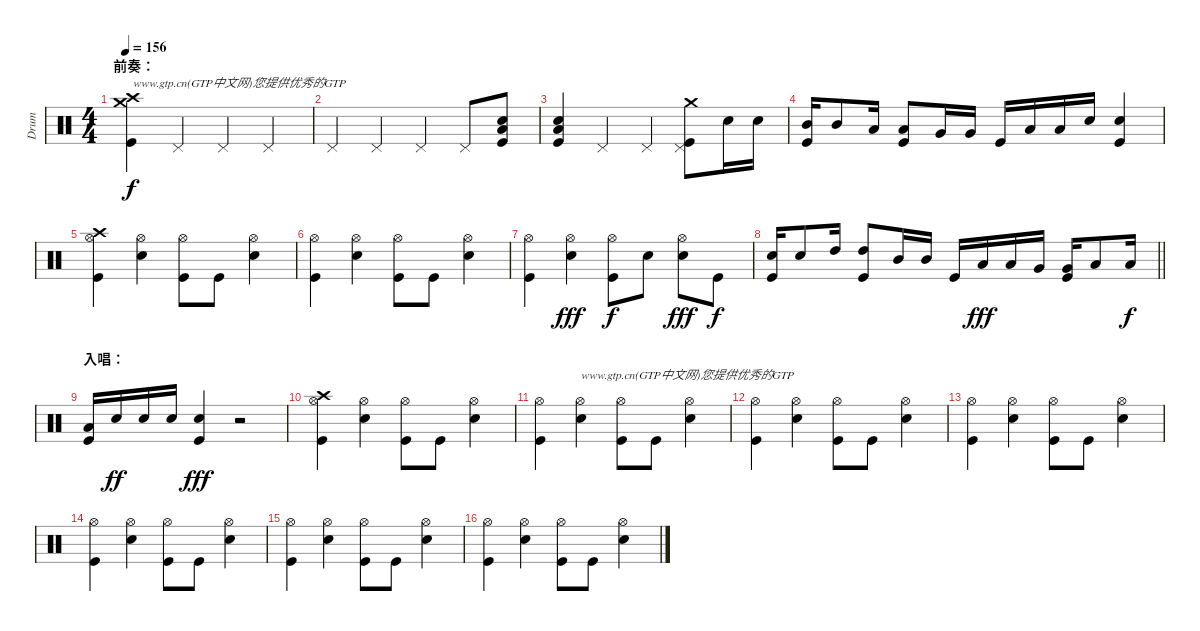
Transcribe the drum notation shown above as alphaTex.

\track ("Drum" "Drum") {instrument percussion}
\staff {score}
\articulation defaults
\ts (4 4)
\section ("" "前奏：")
\tempo 156
\clef neutral
\ks c
("Crash high (hit)" "Crash medium (hit)" "Kick (hit)").4{txt "www.gtp.cn(GTP中文网)您提供优秀的GTP" dy f} "Pedal Hi-Hat (hit)".4 "Pedal Hi-Hat (hit)".4 "Pedal Hi-Hat (hit)".4 |
"Pedal Hi-Hat (hit)".4 "Pedal Hi-Hat (hit)".4 "Pedal Hi-Hat (hit)".4 "Pedal Hi-Hat (hit)".8 ("Metronome (bell)" "Low Floor Tom (hit)" "Kick (hit)").8 |
("Metronome (bell)" "Low Floor Tom (hit)" "Kick (hit)").4 "Pedal Hi-Hat (hit)".4 "Pedal Hi-Hat (hit)".4 ("Crash medium (hit)" "Pedal Hi-Hat (hit)" "Kick (hit)").8 "Metronome (bell)".16 "Metronome (bell)".16 |
("Mid Tom (hit)" "Kick (hit)").16 "Mid Tom (hit)".8 "Low Tom (hit)".16 ("Low Tom (hit)" "Kick (hit)").8 "Very Low Tom (hit)".16 "Very Low Tom (hit)".16 "Kick (hit)".16 "Low Floor Tom (hit)".16 "Low Floor Tom (hit)".16 "Metronome (bell)".16 ("Metronome (bell)" "Kick (hit)").4 |
("Crash high (hit)" "Hi-Hat (open)" "Kick (hit)").4 ("Metronome (bell)" "Hi-Hat (open)").4 ("Hi-Hat (open)" "Kick (hit)").8 "Kick (hit)".8 ("Metronome (bell)" "Hi-Hat (open)").4 |
("Hi-Hat (open)" "Kick (hit)").4 ("Metronome (bell)" "Hi-Hat (open)").4 ("Hi-Hat (open)" "Kick (hit)").8 "Kick (hit)".8 ("Metronome (bell)" "Hi-Hat (open)").4 |
("Hi-Hat (open)" "Kick (hit)").4 ("Metronome (bell)" "Hi-Hat (open)").4{dy fff} ("Hi-Hat (open)" "Kick (hit)").8{dy f} "Metronome (bell)".8 ("Metronome (bell)" "Hi-Hat (open)").8{dy fff} "Kick (hit)".8{dy f} |
\barLineRight lightlight
("Metronome (bell)" "Kick (hit)").16 "Metronome (bell)".8 "High Tom (hit)".16 ("High Tom (hit)" "Kick (hit)").8 "Mid Tom (hit)".16 "Mid Tom (hit)".16 "Kick (hit)".16 "Low Tom (hit)".16{dy fff} "Low Tom (hit)".16 "Very Low Tom (hit)".16 ("Very Low Tom (hit)" "Kick (hit)").16 "Low Floor Tom (hit)".8 "Low Floor Tom (hit)".16{dy f} |
\section ("" "入唱：")
("Low Floor Tom (hit)" "Kick (hit)").16 "Metronome (bell)".16{dy ff} "Metronome (bell)".16 "Metronome (bell)".16 ("Metronome (bell)" "Kick (hit)").4{dy fff} r.2 |
("Hi-Hat (open)" "Crash high (hit)" "Kick (hit)").4 ("Metronome (bell)" "Hi-Hat (open)").4 ("Hi-Hat (open)" "Kick (hit)").8 "Kick (hit)".8 ("Metronome (bell)" "Hi-Hat (open)").4 |
("Hi-Hat (open)" "Kick (hit)").4 ("Hi-Hat (open)" "Metronome (bell)").4{txt "www.gtp.cn(GTP中文网)您提供优秀的GTP"} ("Kick (hit)" "Hi-Hat (open)").8 "Kick (hit)".8 ("Hi-Hat (open)" "Metronome (bell)").4 |
("Kick (hit)" "Hi-Hat (open)").4 ("Metronome (bell)" "Hi-Hat (open)").4 ("Hi-Hat (open)" "Kick (hit)").8 "Kick (hit)".8 ("Hi-Hat (open)" "Metronome (bell)").4 |
("Kick (hit)" "Hi-Hat (open)").4 ("Metronome (bell)" "Hi-Hat (open)").4 ("Hi-Hat (open)" "Kick (hit)").8 "Kick (hit)".8 ("Metronome (bell)" "Hi-Hat (open)").4 |
("Hi-Hat (open)" "Kick (hit)").4 ("Hi-Hat (open)" "Metronome (bell)").4 ("Kick (hit)" "Hi-Hat (open)").8 "Kick (hit)".8 ("Metronome (bell)" "Hi-Hat (open)").4 |
("Hi-Hat (open)" "Kick (hit)").4 ("Metronome (bell)" "Hi-Hat (open)").4 ("Hi-Hat (open)" "Kick (hit)").8 "Kick (hit)".8 ("Metronome (bell)" "Hi-Hat (open)").4 |
("Kick (hit)" "Hi-Hat (open)").4 ("Metronome (bell)" "Hi-Hat (open)").4 ("Hi-Hat (open)" "Kick (hit)").8 "Kick (hit)".8 ("Hi-Hat (open)" "Metronome (bell)").4
